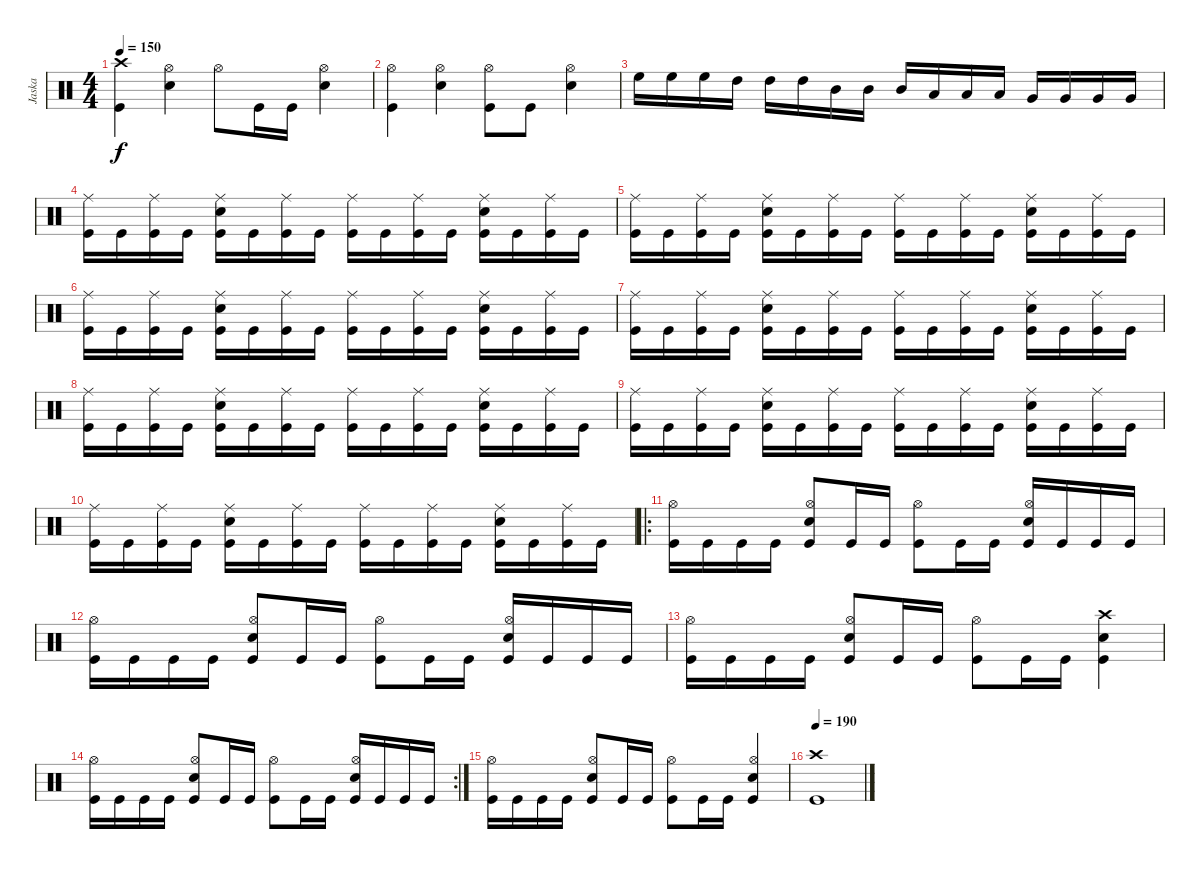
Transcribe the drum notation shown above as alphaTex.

\track ("Jaska" "Jaska") {instrument percussion}
\staff {score}
\articulation defaults
\ts (4 4)
\tempo 150
\clef neutral
\ks c
("Crash high (hit)" "Kick (hit)").4{dy f} ("Hi-Hat (open)" "Snare (hit) 2").4 "Hi-Hat (open)".8 "Kick (hit)".16 "Kick (hit)".16 ("Hi-Hat (open)" "Snare (hit) 2").4 |
("Hi-Hat (open)" "Kick (hit)").4 ("Hi-Hat (open)" "Snare (hit) 2").4 ("Hi-Hat (open)" "Kick (hit)").8 "Kick (hit)".8 ("Hi-Hat (open)" "Snare (hit) 2").4 |
"High Floor Tom (hit)".16 "High Floor Tom (hit)".16 "High Floor Tom (hit)".16 "High Tom (hit)".16 "High Tom (hit)".16 "High Tom (hit)".16 "Mid Tom (hit)".16 "Mid Tom (hit)".16 "Mid Tom (hit)".16 "Low Tom (hit)".16 "Low Tom (hit)".16 "Low Tom (hit)".16 "Very Low Tom (hit)".16 "Very Low Tom (hit)".16 "Very Low Tom (hit)".16 "Very Low Tom (hit)".16 |
("Ride (middle)" "Kick (hit)").16 "Kick (hit)".16 ("Ride (middle)" "Kick (hit)").16 "Kick (hit)".16 ("Ride (middle)" "Snare (hit) 2" "Kick (hit)").16 "Kick (hit)".16 ("Ride (middle)" "Kick (hit)").16 "Kick (hit)".16 ("Ride (middle)" "Kick (hit)").16 "Kick (hit)".16 ("Ride (middle)" "Kick (hit)").16 "Kick (hit)".16 ("Ride (middle)" "Snare (hit) 2" "Kick (hit)").16 "Kick (hit)".16 ("Ride (middle)" "Kick (hit)").16 "Kick (hit)".16 |
("Ride (middle)" "Kick (hit)").16 "Kick (hit)".16 ("Ride (middle)" "Kick (hit)").16 "Kick (hit)".16 ("Ride (middle)" "Snare (hit) 2" "Kick (hit)").16 "Kick (hit)".16 ("Ride (middle)" "Kick (hit)").16 "Kick (hit)".16 ("Ride (middle)" "Kick (hit)").16 "Kick (hit)".16 ("Ride (middle)" "Kick (hit)").16 "Kick (hit)".16 ("Ride (middle)" "Snare (hit) 2" "Kick (hit)").16 "Kick (hit)".16 ("Ride (middle)" "Kick (hit)").16 "Kick (hit)".16 |
("Ride (middle)" "Kick (hit)").16 "Kick (hit)".16 ("Ride (middle)" "Kick (hit)").16 "Kick (hit)".16 ("Ride (middle)" "Snare (hit) 2" "Kick (hit)").16 "Kick (hit)".16 ("Ride (middle)" "Kick (hit)").16 "Kick (hit)".16 ("Ride (middle)" "Kick (hit)").16 "Kick (hit)".16 ("Ride (middle)" "Kick (hit)").16 "Kick (hit)".16 ("Ride (middle)" "Snare (hit) 2" "Kick (hit)").16 "Kick (hit)".16 ("Ride (middle)" "Kick (hit)").16 "Kick (hit)".16 |
("Ride (middle)" "Kick (hit)").16 "Kick (hit)".16 ("Ride (middle)" "Kick (hit)").16 "Kick (hit)".16 ("Ride (middle)" "Snare (hit) 2" "Kick (hit)").16 "Kick (hit)".16 ("Ride (middle)" "Kick (hit)").16 "Kick (hit)".16 ("Ride (middle)" "Kick (hit)").16 "Kick (hit)".16 ("Ride (middle)" "Kick (hit)").16 "Kick (hit)".16 ("Ride (middle)" "Snare (hit) 2" "Kick (hit)").16 "Kick (hit)".16 ("Ride (middle)" "Kick (hit)").16 "Kick (hit)".16 |
("Ride (middle)" "Kick (hit)").16 "Kick (hit)".16 ("Ride (middle)" "Kick (hit)").16 "Kick (hit)".16 ("Ride (middle)" "Snare (hit) 2" "Kick (hit)").16 "Kick (hit)".16 ("Ride (middle)" "Kick (hit)").16 "Kick (hit)".16 ("Ride (middle)" "Kick (hit)").16 "Kick (hit)".16 ("Ride (middle)" "Kick (hit)").16 "Kick (hit)".16 ("Ride (middle)" "Snare (hit) 2" "Kick (hit)").16 "Kick (hit)".16 ("Ride (middle)" "Kick (hit)").16 "Kick (hit)".16 |
("Ride (middle)" "Kick (hit)").16 "Kick (hit)".16 ("Ride (middle)" "Kick (hit)").16 "Kick (hit)".16 ("Ride (middle)" "Snare (hit) 2" "Kick (hit)").16 "Kick (hit)".16 ("Ride (middle)" "Kick (hit)").16 "Kick (hit)".16 ("Ride (middle)" "Kick (hit)").16 "Kick (hit)".16 ("Ride (middle)" "Kick (hit)").16 "Kick (hit)".16 ("Ride (middle)" "Snare (hit) 2" "Kick (hit)").16 "Kick (hit)".16 ("Ride (middle)" "Kick (hit)").16 "Kick (hit)".16 |
("Ride (middle)" "Kick (hit)").16 "Kick (hit)".16 ("Ride (middle)" "Kick (hit)").16 "Kick (hit)".16 ("Ride (middle)" "Snare (hit) 2" "Kick (hit)").16 "Kick (hit)".16 ("Ride (middle)" "Kick (hit)").16 "Kick (hit)".16 ("Ride (middle)" "Kick (hit)").16 "Kick (hit)".16 ("Ride (middle)" "Kick (hit)").16 "Kick (hit)".16 ("Ride (middle)" "Snare (hit) 2" "Kick (hit)").16 "Kick (hit)".16 ("Ride (middle)" "Kick (hit)").16 "Kick (hit)".16 |
\ro
("Hi-Hat (open)" "Kick (hit)").16 "Kick (hit)".16 "Kick (hit)".16 "Kick (hit)".16 ("Hi-Hat (open)" "Snare (hit) 2" "Kick (hit)").8 "Kick (hit)".16 "Kick (hit)".16 ("Hi-Hat (open)" "Kick (hit)").8 "Kick (hit)".16 "Kick (hit)".16 ("Hi-Hat (open)" "Snare (hit) 2" "Kick (hit)").16 "Kick (hit)".16 "Kick (hit)".16 "Kick (hit)".16 |
("Hi-Hat (open)" "Kick (hit)").16 "Kick (hit)".16 "Kick (hit)".16 "Kick (hit)".16 ("Hi-Hat (open)" "Snare (hit) 2" "Kick (hit)").8 "Kick (hit)".16 "Kick (hit)".16 ("Hi-Hat (open)" "Kick (hit)").8 "Kick (hit)".16 "Kick (hit)".16 ("Hi-Hat (open)" "Snare (hit) 2" "Kick (hit)").16 "Kick (hit)".16 "Kick (hit)".16 "Kick (hit)".16 |
("Hi-Hat (open)" "Kick (hit)").16 "Kick (hit)".16 "Kick (hit)".16 "Kick (hit)".16 ("Hi-Hat (open)" "Snare (hit) 2" "Kick (hit)").8 "Kick (hit)".16 "Kick (hit)".16 ("Hi-Hat (open)" "Kick (hit)").8 "Kick (hit)".16 "Kick (hit)".16 ("Crash high (hit)" "Snare (hit) 2" "Kick (hit)").4 |
\rc 2
("Hi-Hat (open)" "Kick (hit)").16 "Kick (hit)".16 "Kick (hit)".16 "Kick (hit)".16 ("Hi-Hat (open)" "Snare (hit) 2" "Kick (hit)").8 "Kick (hit)".16 "Kick (hit)".16 ("Hi-Hat (open)" "Kick (hit)").8 "Kick (hit)".16 "Kick (hit)".16 ("Hi-Hat (open)" "Snare (hit) 2" "Kick (hit)").16 "Kick (hit)".16 "Kick (hit)".16 "Kick (hit)".16 |
("Hi-Hat (open)" "Kick (hit)").16 "Kick (hit)".16 "Kick (hit)".16 "Kick (hit)".16 ("Hi-Hat (open)" "Snare (hit) 2" "Kick (hit)").8 "Kick (hit)".16 "Kick (hit)".16 ("Hi-Hat (open)" "Kick (hit)").8 "Kick (hit)".16 "Kick (hit)".16 ("Hi-Hat (open)" "Snare (hit) 2" "Kick (hit)").4 |
\tempo 190
("Crash high (hit)" "Kick (hit)").1
